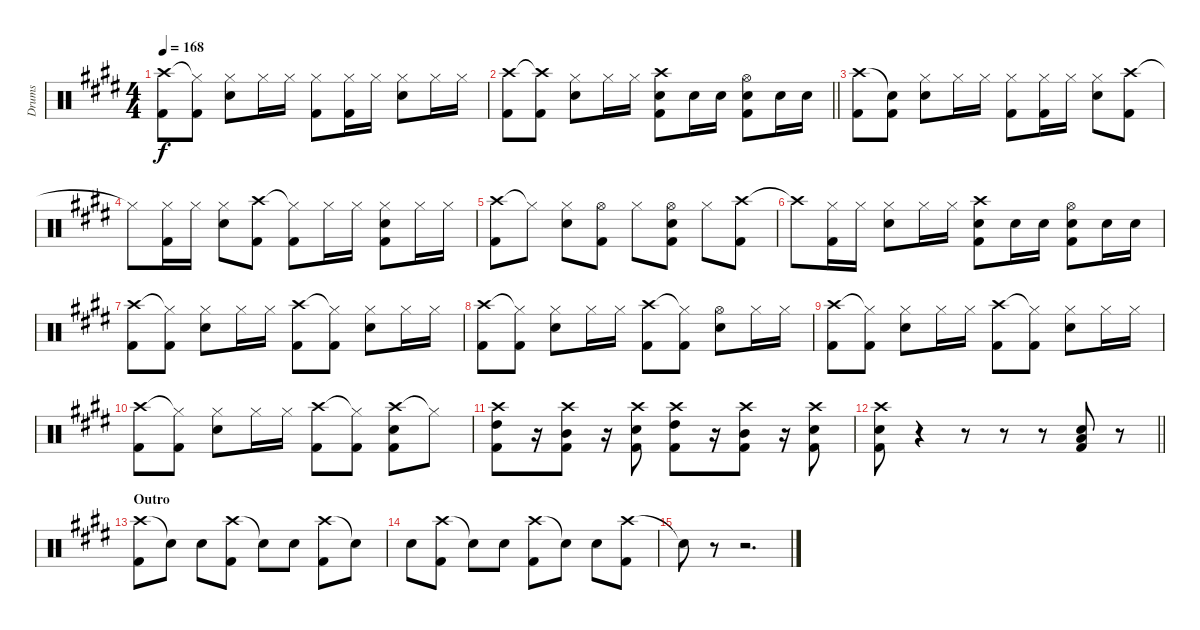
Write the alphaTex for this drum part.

\track ("Drums" "Drums") {instrument percussion}
\staff {score}
\articulation defaults
\ts (4 4)
\tempo 168
\clef neutral
\ks e
("Crash high (hit)" "Kick (hit) 2").8{dy f} ("Hi-Hat (closed)"{t} "Kick (hit) 2").8 ("Hi-Hat (closed)" "Snare (hit) 2").8 "Hi-Hat (closed)".16 "Hi-Hat (closed)".16 ("Hi-Hat (closed)" "Kick (hit) 2").8 ("Hi-Hat (closed)" "Kick (hit) 2").16 "Hi-Hat (closed)".16 ("Hi-Hat (closed)" "Snare (hit) 2").8 "Hi-Hat (closed)".16 "Hi-Hat (closed)".16 |
\barLineRight lightlight
("Crash high (hit)" "Kick (hit) 2").8 ("Crash high (hit)"{t} "Kick (hit) 2").8 ("Hi-Hat (closed)" "Snare (hit) 2").8 "Hi-Hat (closed)".16 "Hi-Hat (closed)".16 ("Crash high (hit)" "Snare (hit) 2" "Kick (hit) 2").8 "Snare (hit) 2".16 "Snare (hit) 2".16 ("Hi-Hat (open)" "Snare (hit) 2" "Kick (hit) 2").8 "Snare (hit) 2".16 "Snare (hit) 2".16 |
("Crash high (hit)" "Kick (hit) 2").8 ("Snare (hit)"{t} "Kick (hit) 2").8 ("Hi-Hat (closed)" "Snare (hit) 2").8 "Hi-Hat (closed)".16 "Hi-Hat (closed)".16 ("Hi-Hat (closed)" "Kick (hit) 2").8 ("Hi-Hat (closed)" "Kick (hit) 2").16 "Hi-Hat (closed)".16 ("Hi-Hat (closed)" "Snare (hit) 2").8 ("Crash high (hit)" "Kick (hit) 2").8 |
"Hi-Hat (closed)"{t}.8 ("Hi-Hat (closed)" "Kick (hit) 2").16 "Hi-Hat (closed)".16 ("Hi-Hat (closed)" "Snare (hit) 2").8 ("Crash high (hit)" "Kick (hit) 2").8 ("Hi-Hat (closed)"{t} "Kick (hit) 2").8 "Hi-Hat (closed)".16 "Hi-Hat (closed)".16 ("Hi-Hat (closed)" "Snare (hit) 2" "Kick (hit) 2").8 "Hi-Hat (closed)".16 "Hi-Hat (closed)".16 |
("Crash high (hit)" "Kick (hit) 2").8 "Hi-Hat (closed)"{t}.8 ("Hi-Hat (closed)" "Snare (hit) 2").8 ("Hi-Hat (open)" "Kick (hit) 2").8 "Hi-Hat (closed)".8 ("Hi-Hat (open)" "Snare (hit) 2" "Kick (hit) 2").8 "Hi-Hat (closed)".8 ("Crash high (hit)" "Kick (hit) 2").8 |
"Crash high (hit)"{t}.8 ("Hi-Hat (closed)" "Kick (hit) 2").16 "Hi-Hat (closed)".16 ("Hi-Hat (closed)" "Snare (hit) 2").8 "Hi-Hat (closed)".16 "Hi-Hat (closed)".16 ("Crash high (hit)" "Snare (hit) 2" "Kick (hit) 2").8 "Snare (hit) 2".16 "Snare (hit) 2".16 ("Hi-Hat (open)" "Snare (hit) 2" "Kick (hit) 2").8 "Snare (hit) 2".16 "Snare (hit) 2".16 |
("Crash high (hit)" "Kick (hit) 2").8 ("Hi-Hat (closed)"{t} "Kick (hit) 2").8 ("Hi-Hat (closed)" "Snare (hit) 2").8 "Hi-Hat (closed)".16 "Hi-Hat (closed)".16 ("Crash high (hit)" "Kick (hit) 2").8 ("Hi-Hat (closed)"{t} "Kick (hit) 2").8 ("Hi-Hat (closed)" "Snare (hit) 2").8 "Hi-Hat (closed)".16 "Hi-Hat (closed)".16 |
("Crash high (hit)" "Kick (hit) 2").8 ("Hi-Hat (closed)"{t} "Kick (hit) 2").8 ("Hi-Hat (closed)" "Snare (hit) 2").8 "Hi-Hat (closed)".16 "Hi-Hat (closed)".16 ("Crash high (hit)" "Kick (hit) 2").8 ("Hi-Hat (closed)"{t} "Kick (hit) 2").8 ("Hi-Hat (open)" "Snare (hit) 2").8 "Hi-Hat (closed)".16 "Hi-Hat (closed)".16 |
("Crash high (hit)" "Kick (hit) 2").8 ("Hi-Hat (closed)"{t} "Kick (hit) 2").8 ("Hi-Hat (closed)" "Snare (hit) 2").8 "Hi-Hat (closed)".16 "Hi-Hat (closed)".16 ("Crash high (hit)" "Kick (hit) 2").8 ("Hi-Hat (closed)"{t} "Kick (hit) 2").8 ("Hi-Hat (closed)" "Snare (hit) 2").8 "Hi-Hat (closed)".16 "Hi-Hat (closed)".16 |
("Crash high (hit)" "Kick (hit) 2").8 ("Hi-Hat (closed)"{t} "Kick (hit) 2").8 ("Hi-Hat (closed)" "Snare (hit) 2").8 "Hi-Hat (closed)".16 "Hi-Hat (closed)".16 ("Crash high (hit)" "Kick (hit) 2").8 ("Hi-Hat (closed)"{t} "Kick (hit) 2").8 ("Crash high (hit)" "Snare (hit) 2" "Kick (hit) 2").8 "Hi-Hat (closed)"{t}.8 |
("Crash high (hit)" "High Tom (hit)" "Kick (hit) 2").8 r.16 ("Crash high (hit)" "Mid Tom (hit)" "Kick (hit) 2").8 r.16 ("Crash high (hit)" "Snare (hit) 2" "Kick (hit) 2").8 ("Crash high (hit)" "High Tom (hit)" "Kick (hit) 2").8 r.16 ("Crash high (hit)" "Mid Tom (hit)" "Kick (hit) 2").8 r.16 ("Crash high (hit)" "Snare (hit) 2" "Kick (hit) 2").8 |
\barLineRight lightlight
("Crash high (hit)" "Snare (hit) 2" "Kick (hit) 2").8 r.4 r.8 r.8 r.8 ("Snare (hit) 2" "Low Tom (hit)" "Kick (hit) 2").8 r.8 |
\section ("" "Outro")
("Crash high (hit)" "Kick (hit) 2").8 "Snare (hit)"{t}.8 "Snare (hit) 2".8 ("Crash high (hit)" "Kick (hit) 2").8 "Snare (hit)"{t}.8 "Snare (hit) 2".8 ("Crash high (hit)" "Kick (hit) 2").8 "Snare (hit)"{t}.8 |
"Snare (hit) 2".8 ("Crash high (hit)" "Kick (hit) 2").8 "Snare (hit)"{t}.8 "Snare (hit) 2".8 ("Crash high (hit)" "Kick (hit) 2").8 "Snare (hit)"{t}.8 "Snare (hit) 2".8 ("Crash high (hit)" "Kick (hit) 2").8 |
"Snare (hit)"{t}.8 r.8 r.2{d}
